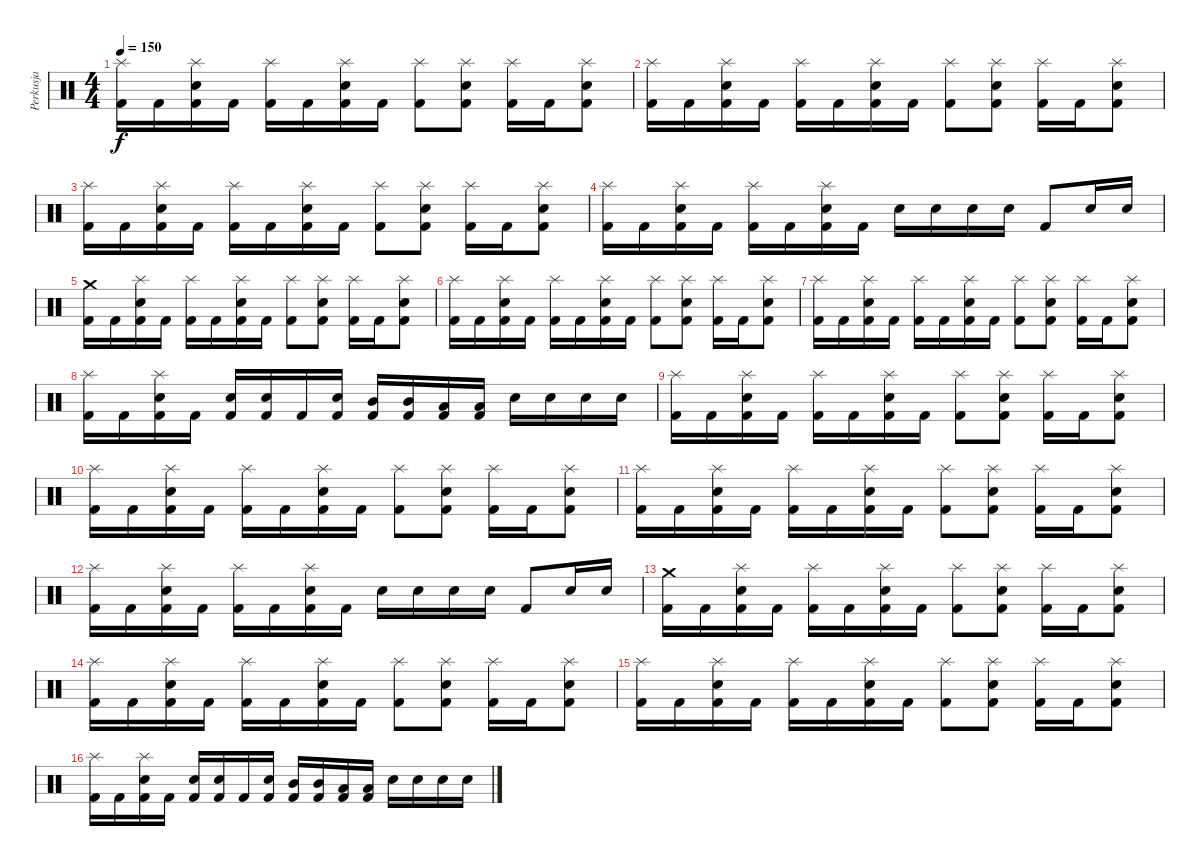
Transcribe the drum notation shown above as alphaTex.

\track ("Perkusja" "Perkusja") {instrument percussion}
\staff {score}
\articulation defaults
\ts (4 4)
\tempo 150
\clef neutral
\ks c
("Splash (hit)" "Kick (hit) 2").16{dy f} "Kick (hit) 2".16 ("Splash (hit)" "Electric Snare (hit)" "Kick (hit) 2").16 "Kick (hit) 2".16 ("Splash (hit)" "Kick (hit) 2").16 "Kick (hit) 2".16 ("Splash (hit)" "Electric Snare (hit)" "Kick (hit) 2").16 "Kick (hit) 2".16 ("Splash (hit)" "Kick (hit) 2").8 ("Splash (hit)" "Electric Snare (hit)" "Kick (hit) 2").8 ("Splash (hit)" "Kick (hit) 2").16 "Kick (hit) 2".16 ("Splash (hit)" "Electric Snare (hit)" "Kick (hit) 2").8 |
("Splash (hit)" "Kick (hit) 2").16 "Kick (hit) 2".16 ("Splash (hit)" "Electric Snare (hit)" "Kick (hit) 2").16 "Kick (hit) 2".16 ("Splash (hit)" "Kick (hit) 2").16 "Kick (hit) 2".16 ("Splash (hit)" "Electric Snare (hit)" "Kick (hit) 2").16 "Kick (hit) 2".16 ("Splash (hit)" "Kick (hit) 2").8 ("Splash (hit)" "Electric Snare (hit)" "Kick (hit) 2").8 ("Splash (hit)" "Kick (hit) 2").16 "Kick (hit) 2".16 ("Splash (hit)" "Electric Snare (hit)" "Kick (hit) 2").8 |
("Splash (hit)" "Kick (hit) 2").16 "Kick (hit) 2".16 ("Splash (hit)" "Electric Snare (hit)" "Kick (hit) 2").16 "Kick (hit) 2".16 ("Splash (hit)" "Kick (hit) 2").16 "Kick (hit) 2".16 ("Splash (hit)" "Electric Snare (hit)" "Kick (hit) 2").16 "Kick (hit) 2".16 ("Splash (hit)" "Kick (hit) 2").8 ("Splash (hit)" "Electric Snare (hit)" "Kick (hit) 2").8 ("Splash (hit)" "Kick (hit) 2").16 "Kick (hit) 2".16 ("Splash (hit)" "Electric Snare (hit)" "Kick (hit) 2").8 |
("Splash (hit)" "Kick (hit) 2").16 "Kick (hit) 2".16 ("Splash (hit)" "Electric Snare (hit)" "Kick (hit) 2").16 "Kick (hit) 2".16 ("Splash (hit)" "Kick (hit) 2").16 "Kick (hit) 2".16 ("Splash (hit)" "Electric Snare (hit)" "Kick (hit) 2").16 "Kick (hit) 2".16 "Electric Snare (hit)".16 "Electric Snare (hit)".16 "Electric Snare (hit)".16 "Electric Snare (hit)".16 "Kick (hit) 2".8 "Electric Snare (hit)".16 "Electric Snare (hit)".16 |
("Crash medium (hit)" "Kick (hit) 2").16 "Kick (hit) 2".16 ("Splash (hit)" "Electric Snare (hit)" "Kick (hit) 2").16 "Kick (hit) 2".16 ("Splash (hit)" "Kick (hit) 2").16 "Kick (hit) 2".16 ("Splash (hit)" "Electric Snare (hit)" "Kick (hit) 2").16 "Kick (hit) 2".16 ("Splash (hit)" "Kick (hit) 2").8 ("Splash (hit)" "Electric Snare (hit)" "Kick (hit) 2").8 ("Splash (hit)" "Kick (hit) 2").16 "Kick (hit) 2".16 ("Splash (hit)" "Electric Snare (hit)" "Kick (hit) 2").8 |
("Splash (hit)" "Kick (hit) 2").16 "Kick (hit) 2".16 ("Splash (hit)" "Electric Snare (hit)" "Kick (hit) 2").16 "Kick (hit) 2".16 ("Splash (hit)" "Kick (hit) 2").16 "Kick (hit) 2".16 ("Splash (hit)" "Electric Snare (hit)" "Kick (hit) 2").16 "Kick (hit) 2".16 ("Splash (hit)" "Kick (hit) 2").8 ("Splash (hit)" "Electric Snare (hit)" "Kick (hit) 2").8 ("Splash (hit)" "Kick (hit) 2").16 "Kick (hit) 2".16 ("Splash (hit)" "Electric Snare (hit)" "Kick (hit) 2").8 |
("Splash (hit)" "Kick (hit) 2").16 "Kick (hit) 2".16 ("Splash (hit)" "Electric Snare (hit)" "Kick (hit) 2").16 "Kick (hit) 2".16 ("Splash (hit)" "Kick (hit) 2").16 "Kick (hit) 2".16 ("Splash (hit)" "Electric Snare (hit)" "Kick (hit) 2").16 "Kick (hit) 2".16 ("Splash (hit)" "Kick (hit) 2").8 ("Splash (hit)" "Electric Snare (hit)" "Kick (hit) 2").8 ("Splash (hit)" "Kick (hit) 2").16 "Kick (hit) 2".16 ("Splash (hit)" "Electric Snare (hit)" "Kick (hit) 2").8 |
("Splash (hit)" "Kick (hit) 2").16 "Kick (hit) 2".16 ("Splash (hit)" "Electric Snare (hit)" "Kick (hit) 2").16 "Kick (hit) 2".16 ("Electric Snare (hit)" "Kick (hit) 2").16 ("Electric Snare (hit)" "Kick (hit) 2").16 "Kick (hit) 2".16 ("Electric Snare (hit)" "Kick (hit) 2").16 ("Mid Tom (hit)" "Kick (hit) 2").16 ("Mid Tom (hit)" "Kick (hit) 2").16 ("Low Tom (hit)" "Kick (hit) 2").16 ("Low Tom (hit)" "Kick (hit) 2").16 "Electric Snare (hit)".16 "Electric Snare (hit)".16 "Electric Snare (hit)".16 "Electric Snare (hit)".16 |
("Splash (hit)" "Kick (hit) 2").16 "Kick (hit) 2".16 ("Splash (hit)" "Electric Snare (hit)" "Kick (hit) 2").16 "Kick (hit) 2".16 ("Splash (hit)" "Kick (hit) 2").16 "Kick (hit) 2".16 ("Splash (hit)" "Electric Snare (hit)" "Kick (hit) 2").16 "Kick (hit) 2".16 ("Splash (hit)" "Kick (hit) 2").8 ("Splash (hit)" "Electric Snare (hit)" "Kick (hit) 2").8 ("Splash (hit)" "Kick (hit) 2").16 "Kick (hit) 2".16 ("Splash (hit)" "Electric Snare (hit)" "Kick (hit) 2").8 |
("Splash (hit)" "Kick (hit) 2").16 "Kick (hit) 2".16 ("Splash (hit)" "Electric Snare (hit)" "Kick (hit) 2").16 "Kick (hit) 2".16 ("Splash (hit)" "Kick (hit) 2").16 "Kick (hit) 2".16 ("Splash (hit)" "Electric Snare (hit)" "Kick (hit) 2").16 "Kick (hit) 2".16 ("Splash (hit)" "Kick (hit) 2").8 ("Splash (hit)" "Electric Snare (hit)" "Kick (hit) 2").8 ("Splash (hit)" "Kick (hit) 2").16 "Kick (hit) 2".16 ("Splash (hit)" "Electric Snare (hit)" "Kick (hit) 2").8 |
("Splash (hit)" "Kick (hit) 2").16 "Kick (hit) 2".16 ("Splash (hit)" "Electric Snare (hit)" "Kick (hit) 2").16 "Kick (hit) 2".16 ("Splash (hit)" "Kick (hit) 2").16 "Kick (hit) 2".16 ("Splash (hit)" "Electric Snare (hit)" "Kick (hit) 2").16 "Kick (hit) 2".16 ("Splash (hit)" "Kick (hit) 2").8 ("Splash (hit)" "Electric Snare (hit)" "Kick (hit) 2").8 ("Splash (hit)" "Kick (hit) 2").16 "Kick (hit) 2".16 ("Splash (hit)" "Electric Snare (hit)" "Kick (hit) 2").8 |
("Splash (hit)" "Kick (hit) 2").16 "Kick (hit) 2".16 ("Splash (hit)" "Electric Snare (hit)" "Kick (hit) 2").16 "Kick (hit) 2".16 ("Splash (hit)" "Kick (hit) 2").16 "Kick (hit) 2".16 ("Splash (hit)" "Electric Snare (hit)" "Kick (hit) 2").16 "Kick (hit) 2".16 "Electric Snare (hit)".16 "Electric Snare (hit)".16 "Electric Snare (hit)".16 "Electric Snare (hit)".16 "Kick (hit) 2".8 "Electric Snare (hit)".16 "Electric Snare (hit)".16 |
("Crash medium (hit)" "Kick (hit) 2").16 "Kick (hit) 2".16 ("Splash (hit)" "Electric Snare (hit)" "Kick (hit) 2").16 "Kick (hit) 2".16 ("Splash (hit)" "Kick (hit) 2").16 "Kick (hit) 2".16 ("Splash (hit)" "Electric Snare (hit)" "Kick (hit) 2").16 "Kick (hit) 2".16 ("Splash (hit)" "Kick (hit) 2").8 ("Splash (hit)" "Electric Snare (hit)" "Kick (hit) 2").8 ("Splash (hit)" "Kick (hit) 2").16 "Kick (hit) 2".16 ("Splash (hit)" "Electric Snare (hit)" "Kick (hit) 2").8 |
("Splash (hit)" "Kick (hit) 2").16 "Kick (hit) 2".16 ("Splash (hit)" "Electric Snare (hit)" "Kick (hit) 2").16 "Kick (hit) 2".16 ("Splash (hit)" "Kick (hit) 2").16 "Kick (hit) 2".16 ("Splash (hit)" "Electric Snare (hit)" "Kick (hit) 2").16 "Kick (hit) 2".16 ("Splash (hit)" "Kick (hit) 2").8 ("Splash (hit)" "Electric Snare (hit)" "Kick (hit) 2").8 ("Splash (hit)" "Kick (hit) 2").16 "Kick (hit) 2".16 ("Splash (hit)" "Electric Snare (hit)" "Kick (hit) 2").8 |
("Splash (hit)" "Kick (hit) 2").16 "Kick (hit) 2".16 ("Splash (hit)" "Electric Snare (hit)" "Kick (hit) 2").16 "Kick (hit) 2".16 ("Splash (hit)" "Kick (hit) 2").16 "Kick (hit) 2".16 ("Splash (hit)" "Electric Snare (hit)" "Kick (hit) 2").16 "Kick (hit) 2".16 ("Splash (hit)" "Kick (hit) 2").8 ("Splash (hit)" "Electric Snare (hit)" "Kick (hit) 2").8 ("Splash (hit)" "Kick (hit) 2").16 "Kick (hit) 2".16 ("Splash (hit)" "Electric Snare (hit)" "Kick (hit) 2").8 |
("Splash (hit)" "Kick (hit) 2").16 "Kick (hit) 2".16 ("Splash (hit)" "Electric Snare (hit)" "Kick (hit) 2").16 "Kick (hit) 2".16 ("Electric Snare (hit)" "Kick (hit) 2").16 ("Electric Snare (hit)" "Kick (hit) 2").16 "Kick (hit) 2".16 ("Electric Snare (hit)" "Kick (hit) 2").16 ("Mid Tom (hit)" "Kick (hit) 2").16 ("Mid Tom (hit)" "Kick (hit) 2").16 ("Low Tom (hit)" "Kick (hit) 2").16 ("Low Tom (hit)" "Kick (hit) 2").16 "Electric Snare (hit)".16 "Electric Snare (hit)".16 "Electric Snare (hit)".16 "Electric Snare (hit)".16
